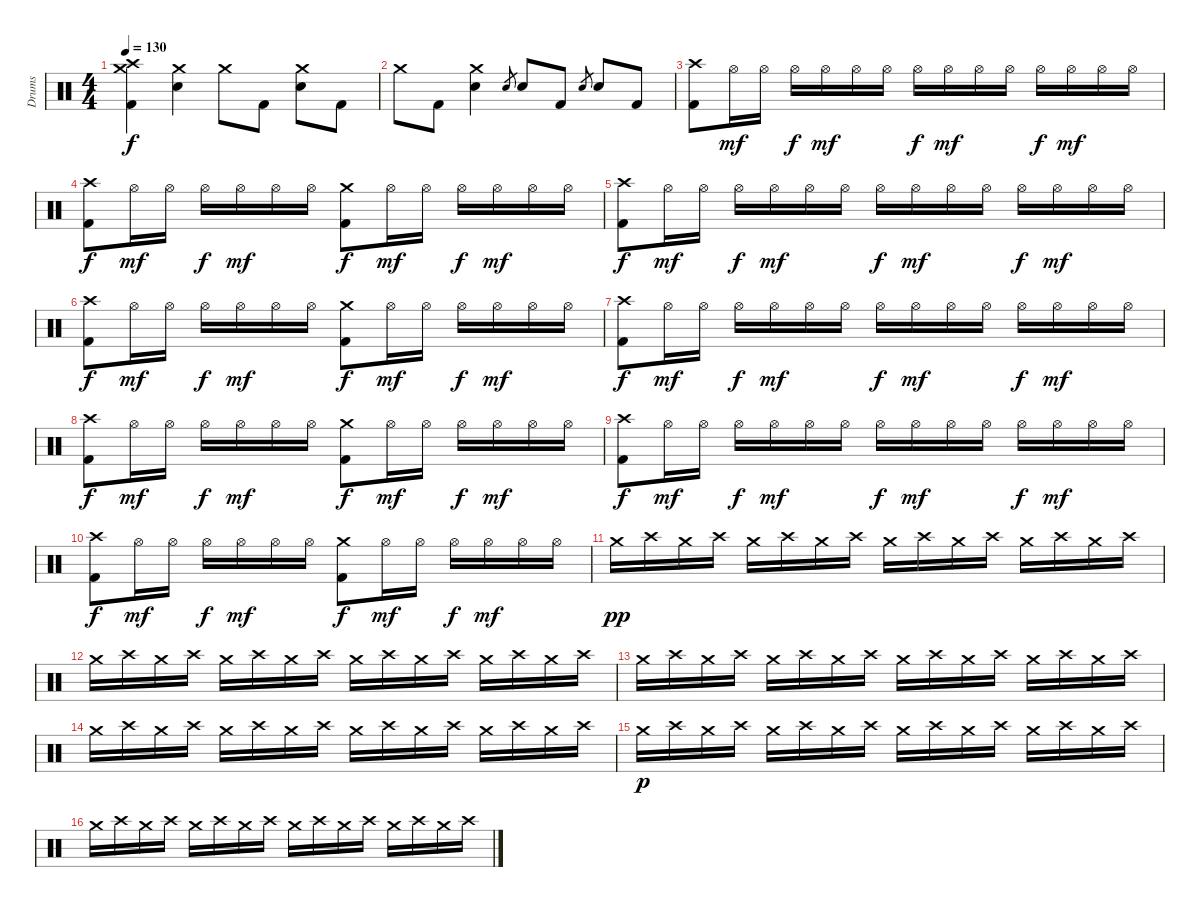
\track ("Drums" "Drums") {instrument percussion}
\staff {score}
\articulation defaults
\ts (4 4)
\tempo 130
\clef neutral
\ks c
("Crash medium (hit)" "Crash high (hit)" "Kick (hit) 2").4{dy f} ("Crash medium (hit)" "Electric Snare (hit)").4 "Crash medium (hit)".8 "Kick (hit) 2".8 ("Crash medium (hit)" "Electric Snare (hit)").8 "Kick (hit) 2".8 |
"Crash medium (hit)".8 "Kick (hit) 2".8 ("Crash medium (hit)" "Electric Snare (hit)").4 "Electric Snare (hit)".8{gr} "Electric Snare (hit)".8 "Kick (hit) 2".8 "Electric Snare (hit)".8{gr} "Electric Snare (hit)".8 "Kick (hit) 2".8 |
("Crash high (hit)" "Kick (hit) 2").8 "Hi-Hat (open)".16{dy mf} "Hi-Hat (open)".16 "Hi-Hat (open)".16{dy f} "Hi-Hat (open)".16{dy mf} "Hi-Hat (open)".16 "Hi-Hat (open)".16 "Hi-Hat (open)".16{dy f} "Hi-Hat (open)".16{dy mf} "Hi-Hat (open)".16 "Hi-Hat (open)".16 "Hi-Hat (open)".16{dy f} "Hi-Hat (open)".16{dy mf} "Hi-Hat (open)".16 "Hi-Hat (open)".16 |
("Crash high (hit)" "Kick (hit) 2").8{dy f} "Hi-Hat (open)".16{dy mf} "Hi-Hat (open)".16 "Hi-Hat (open)".16{dy f} "Hi-Hat (open)".16{dy mf} "Hi-Hat (open)".16 "Hi-Hat (open)".16 ("Crash medium (hit)" "Kick (hit) 2").8{dy f} "Hi-Hat (open)".16{dy mf} "Hi-Hat (open)".16 "Hi-Hat (open)".16{dy f} "Hi-Hat (open)".16{dy mf} "Hi-Hat (open)".16 "Hi-Hat (open)".16 |
("Crash high (hit)" "Kick (hit) 2").8{dy f} "Hi-Hat (open)".16{dy mf} "Hi-Hat (open)".16 "Hi-Hat (open)".16{dy f} "Hi-Hat (open)".16{dy mf} "Hi-Hat (open)".16 "Hi-Hat (open)".16 "Hi-Hat (open)".16{dy f} "Hi-Hat (open)".16{dy mf} "Hi-Hat (open)".16 "Hi-Hat (open)".16 "Hi-Hat (open)".16{dy f} "Hi-Hat (open)".16{dy mf} "Hi-Hat (open)".16 "Hi-Hat (open)".16 |
("Crash high (hit)" "Kick (hit) 2").8{dy f} "Hi-Hat (open)".16{dy mf} "Hi-Hat (open)".16 "Hi-Hat (open)".16{dy f} "Hi-Hat (open)".16{dy mf} "Hi-Hat (open)".16 "Hi-Hat (open)".16 ("Crash medium (hit)" "Kick (hit) 2").8{dy f} "Hi-Hat (open)".16{dy mf} "Hi-Hat (open)".16 "Hi-Hat (open)".16{dy f} "Hi-Hat (open)".16{dy mf} "Hi-Hat (open)".16 "Hi-Hat (open)".16 |
("Crash high (hit)" "Kick (hit) 2").8{dy f} "Hi-Hat (open)".16{dy mf} "Hi-Hat (open)".16 "Hi-Hat (open)".16{dy f} "Hi-Hat (open)".16{dy mf} "Hi-Hat (open)".16 "Hi-Hat (open)".16 "Hi-Hat (open)".16{dy f} "Hi-Hat (open)".16{dy mf} "Hi-Hat (open)".16 "Hi-Hat (open)".16 "Hi-Hat (open)".16{dy f} "Hi-Hat (open)".16{dy mf} "Hi-Hat (open)".16 "Hi-Hat (open)".16 |
("Crash high (hit)" "Kick (hit) 2").8{dy f} "Hi-Hat (open)".16{dy mf} "Hi-Hat (open)".16 "Hi-Hat (open)".16{dy f} "Hi-Hat (open)".16{dy mf} "Hi-Hat (open)".16 "Hi-Hat (open)".16 ("Crash medium (hit)" "Kick (hit) 2").8{dy f} "Hi-Hat (open)".16{dy mf} "Hi-Hat (open)".16 "Hi-Hat (open)".16{dy f} "Hi-Hat (open)".16{dy mf} "Hi-Hat (open)".16 "Hi-Hat (open)".16 |
("Crash high (hit)" "Kick (hit) 2").8{dy f} "Hi-Hat (open)".16{dy mf} "Hi-Hat (open)".16 "Hi-Hat (open)".16{dy f} "Hi-Hat (open)".16{dy mf} "Hi-Hat (open)".16 "Hi-Hat (open)".16 "Hi-Hat (open)".16{dy f} "Hi-Hat (open)".16{dy mf} "Hi-Hat (open)".16 "Hi-Hat (open)".16 "Hi-Hat (open)".16{dy f} "Hi-Hat (open)".16{dy mf} "Hi-Hat (open)".16 "Hi-Hat (open)".16 |
("Crash high (hit)" "Kick (hit) 2").8{dy f} "Hi-Hat (open)".16{dy mf} "Hi-Hat (open)".16 "Hi-Hat (open)".16{dy f} "Hi-Hat (open)".16{dy mf} "Hi-Hat (open)".16 "Hi-Hat (open)".16 ("Crash medium (hit)" "Kick (hit) 2").8{dy f} "Hi-Hat (open)".16{dy mf} "Hi-Hat (open)".16 "Hi-Hat (open)".16{dy f} "Hi-Hat (open)".16{dy mf} "Hi-Hat (open)".16 "Hi-Hat (open)".16 |
"Crash medium (hit)".16{dy pp} "Crash high (hit)".16 "Crash medium (hit)".16 "Crash high (hit)".16 "Crash medium (hit)".16 "Crash high (hit)".16 "Crash medium (hit)".16 "Crash high (hit)".16 "Crash medium (hit)".16 "Crash high (hit)".16 "Crash medium (hit)".16 "Crash high (hit)".16 "Crash medium (hit)".16 "Crash high (hit)".16 "Crash medium (hit)".16 "Crash high (hit)".16 |
"Crash medium (hit)".16 "Crash high (hit)".16 "Crash medium (hit)".16 "Crash high (hit)".16 "Crash medium (hit)".16 "Crash high (hit)".16 "Crash medium (hit)".16 "Crash high (hit)".16 "Crash medium (hit)".16 "Crash high (hit)".16 "Crash medium (hit)".16 "Crash high (hit)".16 "Crash medium (hit)".16 "Crash high (hit)".16 "Crash medium (hit)".16 "Crash high (hit)".16 |
"Crash medium (hit)".16 "Crash high (hit)".16 "Crash medium (hit)".16 "Crash high (hit)".16 "Crash medium (hit)".16 "Crash high (hit)".16 "Crash medium (hit)".16 "Crash high (hit)".16 "Crash medium (hit)".16 "Crash high (hit)".16 "Crash medium (hit)".16 "Crash high (hit)".16 "Crash medium (hit)".16 "Crash high (hit)".16 "Crash medium (hit)".16 "Crash high (hit)".16 |
"Crash medium (hit)".16 "Crash high (hit)".16 "Crash medium (hit)".16 "Crash high (hit)".16 "Crash medium (hit)".16 "Crash high (hit)".16 "Crash medium (hit)".16 "Crash high (hit)".16 "Crash medium (hit)".16 "Crash high (hit)".16 "Crash medium (hit)".16 "Crash high (hit)".16 "Crash medium (hit)".16 "Crash high (hit)".16 "Crash medium (hit)".16 "Crash high (hit)".16 |
"Crash medium (hit)".16{dy p} "Crash high (hit)".16 "Crash medium (hit)".16 "Crash high (hit)".16 "Crash medium (hit)".16 "Crash high (hit)".16 "Crash medium (hit)".16 "Crash high (hit)".16 "Crash medium (hit)".16 "Crash high (hit)".16 "Crash medium (hit)".16 "Crash high (hit)".16 "Crash medium (hit)".16 "Crash high (hit)".16 "Crash medium (hit)".16 "Crash high (hit)".16 |
"Crash medium (hit)".16 "Crash high (hit)".16 "Crash medium (hit)".16 "Crash high (hit)".16 "Crash medium (hit)".16 "Crash high (hit)".16 "Crash medium (hit)".16 "Crash high (hit)".16 "Crash medium (hit)".16 "Crash high (hit)".16 "Crash medium (hit)".16 "Crash high (hit)".16 "Crash medium (hit)".16 "Crash high (hit)".16 "Crash medium (hit)".16 "Crash high (hit)".16
